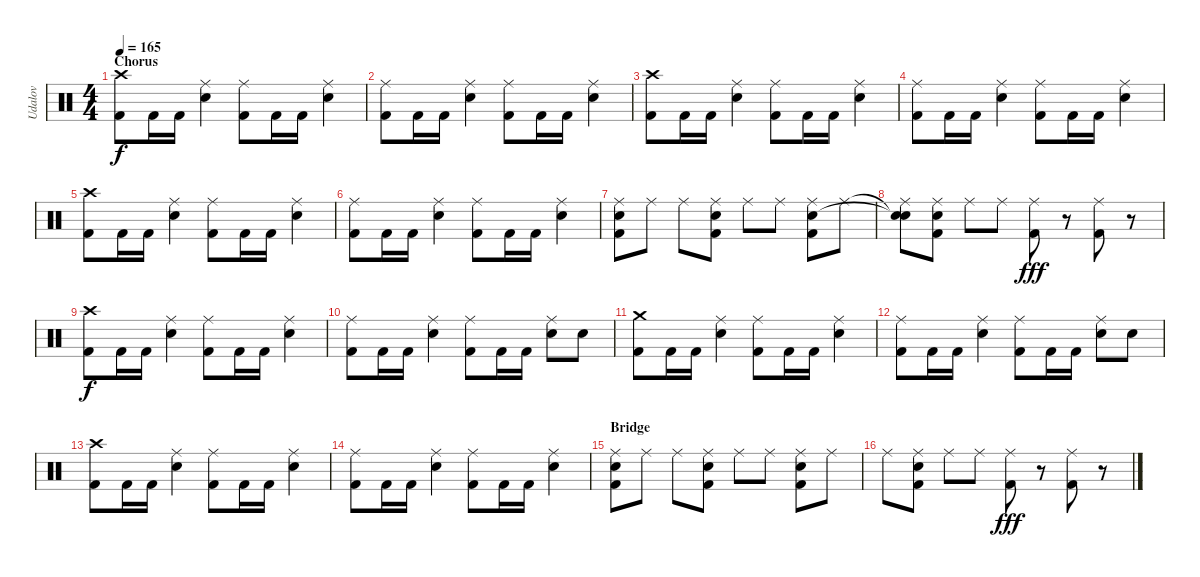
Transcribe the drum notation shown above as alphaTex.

\track ("Udalov" "Udalov") {instrument percussion}
\staff {score}
\articulation defaults
\ts (4 4)
\section ("" "Chorus")
\tempo 165
\clef neutral
\ks c
("Kick (hit) 2" "Crash high (hit)").8{dy f} "Kick (hit) 2".16 "Kick (hit) 2".16 ("Snare (hit) 2" "Ride (middle)").4 ("Kick (hit) 2" "Ride (middle)").8 "Kick (hit) 2".16 "Kick (hit) 2".16 ("Snare (hit) 2" "Ride (middle)").4 |
("Kick (hit) 2" "Ride (middle)").8 "Kick (hit) 2".16 "Kick (hit) 2".16 ("Snare (hit) 2" "Ride (middle)").4 ("Kick (hit) 2" "Ride (middle)").8 "Kick (hit) 2".16 "Kick (hit) 2".16 ("Snare (hit) 2" "Ride (middle)").4 |
("Kick (hit) 2" "Crash high (hit)").8 "Kick (hit) 2".16 "Kick (hit) 2".16 ("Snare (hit) 2" "Ride (middle)").4 ("Kick (hit) 2" "Ride (middle)").8 "Kick (hit) 2".16 "Kick (hit) 2".16 ("Snare (hit) 2" "Ride (middle)").4 |
("Kick (hit) 2" "Ride (middle)").8 "Kick (hit) 2".16 "Kick (hit) 2".16 ("Snare (hit) 2" "Ride (middle)").4 ("Kick (hit) 2" "Ride (middle)").8 "Kick (hit) 2".16 "Kick (hit) 2".16 ("Snare (hit) 2" "Ride (middle)").4 |
("Kick (hit) 2" "Crash high (hit)").8 "Kick (hit) 2".16 "Kick (hit) 2".16 ("Snare (hit) 2" "Ride (middle)").4 ("Kick (hit) 2" "Ride (middle)").8 "Kick (hit) 2".16 "Kick (hit) 2".16 ("Snare (hit) 2" "Ride (middle)").4 |
("Kick (hit) 2" "Ride (middle)").8 "Kick (hit) 2".16 "Kick (hit) 2".16 ("Snare (hit) 2" "Ride (middle)").4 ("Kick (hit) 2" "Ride (middle)").8 "Kick (hit) 2".16 "Kick (hit) 2".16 ("Snare (hit) 2" "Ride (middle)").4 |
("Kick (hit) 2" "Electric Snare (hit)" "Ride (middle)").8 "Ride (middle)".8 "Ride (middle)".8 ("Kick (hit) 2" "Electric Snare (hit)" "Ride (middle)").8 "Ride (middle)".8 "Ride (middle)".8 ("Kick (hit) 2" "Electric Snare (hit)" "Ride (middle)").8 "Ride (middle)".8 |
("Snare (hit)"{t} "Snare (hit)"{t} "Ride (middle)").8 ("Electric Snare (hit)" "Kick (hit) 2" "Ride (middle)").8 "Ride (middle)".8 "Ride (middle)".8 ("Ride (middle)" "Kick (hit) 2").8{dy fff} r.8 ("Ride (middle)" "Kick (hit) 2").8 r.8 |
("Kick (hit) 2" "Crash high (hit)").8{dy f} "Kick (hit) 2".16 "Kick (hit) 2".16 ("Snare (hit) 2" "Ride (middle)").4 ("Kick (hit) 2" "Ride (middle)").8 "Kick (hit) 2".16 "Kick (hit) 2".16 ("Snare (hit) 2" "Ride (middle)").4 |
("Kick (hit) 2" "Ride (middle)").8 "Kick (hit) 2".16 "Kick (hit) 2".16 ("Snare (hit) 2" "Ride (middle)").4 ("Kick (hit) 2" "Ride (middle)").8 "Kick (hit) 2".16 "Kick (hit) 2".16 ("Snare (hit) 2" "Ride (middle)").8 "Snare (hit) 2".8 |
("Kick (hit) 2" "Crash medium (hit)").8 "Kick (hit) 2".16 "Kick (hit) 2".16 ("Snare (hit) 2" "Ride (middle)").4 ("Kick (hit) 2" "Ride (middle)").8 "Kick (hit) 2".16 "Kick (hit) 2".16 ("Snare (hit) 2" "Ride (middle)").4 |
("Kick (hit) 2" "Ride (middle)").8 "Kick (hit) 2".16 "Kick (hit) 2".16 ("Snare (hit) 2" "Ride (middle)").4 ("Kick (hit) 2" "Ride (middle)").8 "Kick (hit) 2".16 "Kick (hit) 2".16 ("Snare (hit) 2" "Ride (middle)").8 "Snare (hit) 2".8 |
("Kick (hit) 2" "Crash high (hit)").8 "Kick (hit) 2".16 "Kick (hit) 2".16 ("Snare (hit) 2" "Ride (middle)").4 ("Kick (hit) 2" "Ride (middle)").8 "Kick (hit) 2".16 "Kick (hit) 2".16 ("Snare (hit) 2" "Ride (middle)").4 |
("Kick (hit) 2" "Ride (middle)").8 "Kick (hit) 2".16 "Kick (hit) 2".16 ("Snare (hit) 2" "Ride (middle)").4 ("Kick (hit) 2" "Ride (middle)").8 "Kick (hit) 2".16 "Kick (hit) 2".16 ("Snare (hit) 2" "Ride (middle)").4 |
\section ("" "Bridge")
("Kick (hit) 2" "Electric Snare (hit)" "Ride (middle)").8 "Ride (middle)".8 "Ride (middle)".8 ("Kick (hit) 2" "Electric Snare (hit)" "Ride (middle)").8 "Ride (middle)".8 "Ride (middle)".8 ("Kick (hit) 2" "Electric Snare (hit)" "Ride (middle)").8 "Ride (middle)".8 |
"Ride (middle)".8 ("Electric Snare (hit)" "Kick (hit) 2" "Ride (middle)").8 "Ride (middle)".8 "Ride (middle)".8 ("Ride (middle)" "Kick (hit) 2").8{dy fff} r.8 ("Ride (middle)" "Kick (hit) 2").8 r.8
